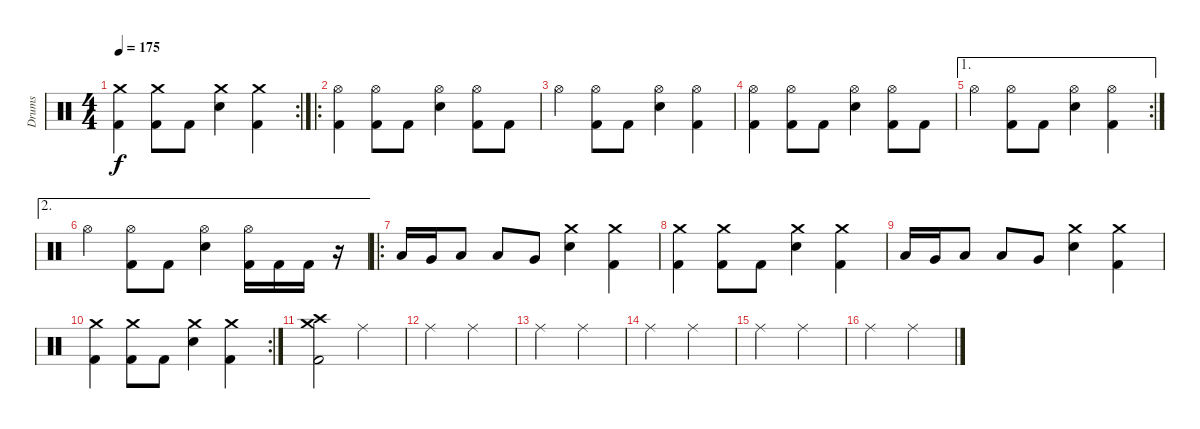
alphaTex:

\track ("Drums" "Drums") {instrument percussion}
\staff {score}
\articulation defaults
\rc 2
\ts (4 4)
\tempo 175
\clef neutral
\ks c
("Crash medium (hit)" "Kick (hit) 2").4{dy f} ("Crash medium (hit)" "Kick (hit) 2").8 "Kick (hit) 2".8 ("Crash medium (hit)" "Snare (hit) 2").4 ("Crash medium (hit)" "Kick (hit) 2").4 |
\ro
("Hi-Hat (open)" "Kick (hit) 2").4 ("Hi-Hat (open)" "Kick (hit) 2").8 "Kick (hit) 2".8 ("Hi-Hat (open)" "Snare (hit) 2").4 ("Hi-Hat (open)" "Kick (hit) 2").8 "Kick (hit) 2".8 |
"Hi-Hat (open)".4 ("Hi-Hat (open)" "Kick (hit) 2").8 "Kick (hit) 2".8 ("Hi-Hat (open)" "Snare (hit) 2").4 ("Hi-Hat (open)" "Kick (hit) 2").4 |
("Hi-Hat (open)" "Kick (hit) 2").4 ("Hi-Hat (open)" "Kick (hit) 2").8 "Kick (hit) 2".8 ("Hi-Hat (open)" "Snare (hit) 2").4 ("Hi-Hat (open)" "Kick (hit) 2").8 "Kick (hit) 2".8 |
\ae 1
\rc 2 "Hi-Hat (open)".4
("Hi-Hat (open)" "Kick (hit) 2").8 "Kick (hit) 2".8 ("Hi-Hat (open)" "Snare (hit) 2").4 ("Hi-Hat (open)" "Kick (hit) 2").4 |
\ae 2 "Hi-Hat (open)".4
("Hi-Hat (open)" "Kick (hit) 2").8 "Kick (hit) 2".8 ("Hi-Hat (open)" "Snare (hit) 2").4 ("Hi-Hat (open)" "Kick (hit) 2").16 "Kick (hit) 2".16 "Kick (hit) 2".16 r.16 |
\ro "Low Tom (hit)".16 "Very Low Tom (hit)".16 "Low Floor Tom (hit)".8 "Low Tom (hit)".8 "Very Low Tom (hit)".8
("Crash medium (hit)" "Snare (hit) 2").4 ("Crash medium (hit)" "Kick (hit) 2").4 |
("Crash medium (hit)" "Kick (hit) 2").4 ("Crash medium (hit)" "Kick (hit) 2").8 "Kick (hit) 2".8 ("Crash medium (hit)" "Snare (hit) 2").4 ("Crash medium (hit)" "Kick (hit) 2").4 |
"Low Tom (hit)".16 "Very Low Tom (hit)".16 "Low Floor Tom (hit)".8 "Low Tom (hit)".8 "Very Low Tom (hit)".8 ("Crash medium (hit)" "Snare (hit) 2").4 ("Crash medium (hit)" "Kick (hit) 2").4 |
\rc 2
("Crash medium (hit)" "Kick (hit) 2").4 ("Crash medium (hit)" "Kick (hit) 2").8 "Kick (hit) 2".8 ("Crash medium (hit)" "Snare (hit) 2").4 ("Crash medium (hit)" "Kick (hit) 2").4 |
("Crash high (hit)" "Crash medium (hit)" "Kick (hit) 2").2 "Ride (middle)".2 |
"Ride (middle)".2 "Ride (middle)".2 |
"Ride (middle)".2 "Ride (middle)".2 |
"Ride (middle)".2 "Ride (middle)".2 |
"Ride (middle)".2 "Ride (middle)".2 |
"Ride (middle)".2 "Ride (middle)".2
